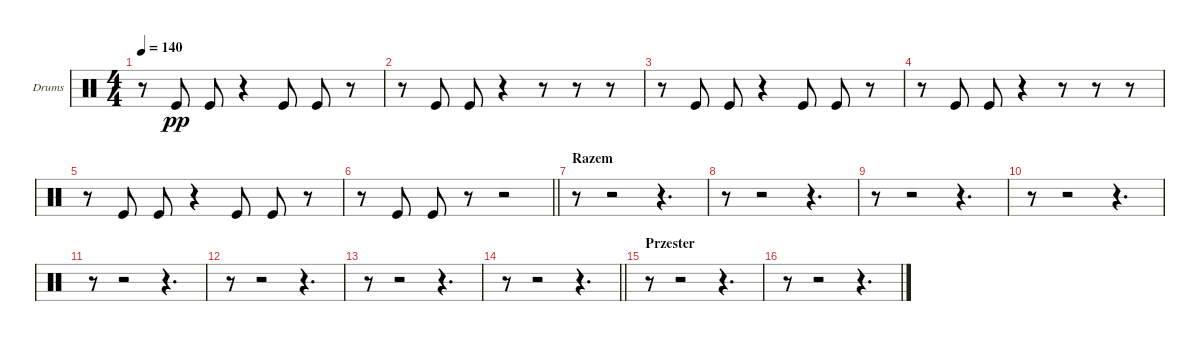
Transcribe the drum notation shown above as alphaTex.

\bracketExtendMode groupsimilarinstruments
\firstSystemTrackNameOrientation horizontal
\otherSystemsTrackNameOrientation horizontal
\track ("Drumkit" "Drums") {instrument percussion}
\staff {score}
\articulation defaults
\ts (4 4)
\tempo 140
\clef neutral
\ks c
r.8{dy pp} "Kick (hit)".8 "Kick (hit)".8 r.4 "Kick (hit)".8 "Kick (hit)".8 r.8 |
r.8 "Kick (hit)".8 "Kick (hit)".8 r.4 r.8 r.8 r.8 |
r.8 "Kick (hit)".8 "Kick (hit)".8 r.4 "Kick (hit)".8 "Kick (hit)".8 r.8 |
r.8 "Kick (hit)".8 "Kick (hit)".8 r.4 r.8 r.8 r.8 |
r.8 "Kick (hit)".8 "Kick (hit)".8 r.4 "Kick (hit)".8 "Kick (hit)".8 r.8 |
\barLineRight lightlight
r.8 "Kick (hit)".8 "Kick (hit)".8 r.8 r.2 |
\section ("" "Razem")
r.8 r.2 r.4{d} |
r.8 r.2 r.4{d} |
r.8 r.2 r.4{d} |
r.8 r.2 r.4{d} |
r.8 r.2 r.4{d} |
r.8 r.2 r.4{d} |
r.8 r.2 r.4{d} |
\barLineRight lightlight
r.8 r.2 r.4{d} |
\section ("" "Przester")
r.8 r.2 r.4{d} |
r.8 r.2 r.4{d}
